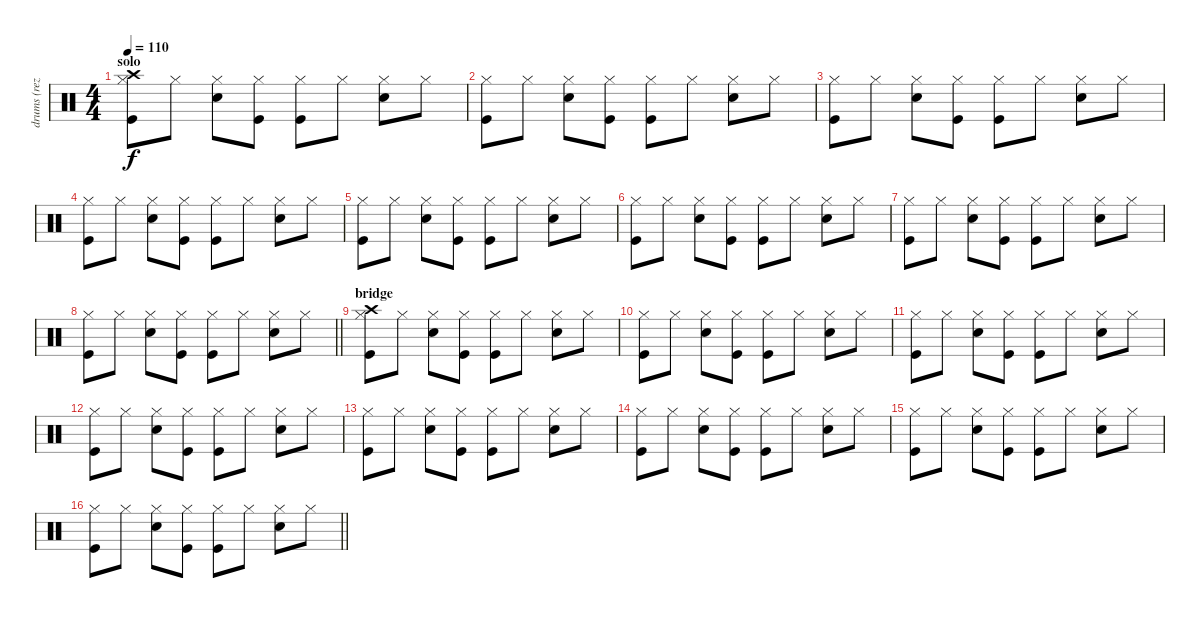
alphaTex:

\track ("drums (reza)" "drums (rez") {instrument percussion}
\staff {score}
\articulation defaults
\ts (4 4)
\section ("" "solo")
\tempo 110
\clef neutral
\ks c
("Hi-Hat (closed)" "Kick (hit)" "Crash high (hit)").8{dy f} "Hi-Hat (closed)".8 ("Hi-Hat (closed)" "Snare (hit) 2").8 ("Hi-Hat (closed)" "Kick (hit)").8 ("Hi-Hat (closed)" "Kick (hit)").8 "Hi-Hat (closed)".8 ("Hi-Hat (closed)" "Snare (hit) 2").8 "Hi-Hat (closed)".8 |
("Hi-Hat (closed)" "Kick (hit)").8 "Hi-Hat (closed)".8 ("Hi-Hat (closed)" "Snare (hit) 2").8 ("Hi-Hat (closed)" "Kick (hit)").8 ("Hi-Hat (closed)" "Kick (hit)").8 "Hi-Hat (closed)".8 ("Hi-Hat (closed)" "Snare (hit) 2").8 "Hi-Hat (closed)".8 |
("Hi-Hat (closed)" "Kick (hit)").8 "Hi-Hat (closed)".8 ("Hi-Hat (closed)" "Snare (hit) 2").8 ("Hi-Hat (closed)" "Kick (hit)").8 ("Hi-Hat (closed)" "Kick (hit)").8 "Hi-Hat (closed)".8 ("Hi-Hat (closed)" "Snare (hit) 2").8 "Hi-Hat (closed)".8 |
("Hi-Hat (closed)" "Kick (hit)").8 "Hi-Hat (closed)".8 ("Hi-Hat (closed)" "Snare (hit) 2").8 ("Hi-Hat (closed)" "Kick (hit)").8 ("Hi-Hat (closed)" "Kick (hit)").8 "Hi-Hat (closed)".8 ("Hi-Hat (closed)" "Snare (hit) 2").8 "Hi-Hat (closed)".8 |
("Hi-Hat (closed)" "Kick (hit)").8 "Hi-Hat (closed)".8 ("Hi-Hat (closed)" "Snare (hit) 2").8 ("Hi-Hat (closed)" "Kick (hit)").8 ("Hi-Hat (closed)" "Kick (hit)").8 "Hi-Hat (closed)".8 ("Hi-Hat (closed)" "Snare (hit) 2").8 "Hi-Hat (closed)".8 |
("Hi-Hat (closed)" "Kick (hit)").8 "Hi-Hat (closed)".8 ("Hi-Hat (closed)" "Snare (hit) 2").8 ("Hi-Hat (closed)" "Kick (hit)").8 ("Hi-Hat (closed)" "Kick (hit)").8 "Hi-Hat (closed)".8 ("Hi-Hat (closed)" "Snare (hit) 2").8 "Hi-Hat (closed)".8 |
("Hi-Hat (closed)" "Kick (hit)").8 "Hi-Hat (closed)".8 ("Hi-Hat (closed)" "Snare (hit) 2").8 ("Hi-Hat (closed)" "Kick (hit)").8 ("Hi-Hat (closed)" "Kick (hit)").8 "Hi-Hat (closed)".8 ("Hi-Hat (closed)" "Snare (hit) 2").8 "Hi-Hat (closed)".8 |
\barLineRight lightlight
("Hi-Hat (closed)" "Kick (hit)").8 "Hi-Hat (closed)".8 ("Hi-Hat (closed)" "Snare (hit) 2").8 ("Hi-Hat (closed)" "Kick (hit)").8 ("Hi-Hat (closed)" "Kick (hit)").8 "Hi-Hat (closed)".8 ("Hi-Hat (closed)" "Snare (hit) 2").8 "Hi-Hat (closed)".8 |
\section ("" "bridge")
("Hi-Hat (closed)" "Kick (hit)" "Crash high (hit)").8 "Hi-Hat (closed)".8 ("Hi-Hat (closed)" "Snare (hit) 2").8 ("Hi-Hat (closed)" "Kick (hit)").8 ("Hi-Hat (closed)" "Kick (hit)").8 "Hi-Hat (closed)".8 ("Hi-Hat (closed)" "Snare (hit) 2").8 "Hi-Hat (closed)".8 |
("Hi-Hat (closed)" "Kick (hit)").8 "Hi-Hat (closed)".8 ("Hi-Hat (closed)" "Snare (hit) 2").8 ("Hi-Hat (closed)" "Kick (hit)").8 ("Hi-Hat (closed)" "Kick (hit)").8 "Hi-Hat (closed)".8 ("Hi-Hat (closed)" "Snare (hit) 2").8 "Hi-Hat (closed)".8 |
("Hi-Hat (closed)" "Kick (hit)").8 "Hi-Hat (closed)".8 ("Hi-Hat (closed)" "Snare (hit) 2").8 ("Hi-Hat (closed)" "Kick (hit)").8 ("Hi-Hat (closed)" "Kick (hit)").8 "Hi-Hat (closed)".8 ("Hi-Hat (closed)" "Snare (hit) 2").8 "Hi-Hat (closed)".8 |
("Hi-Hat (closed)" "Kick (hit)").8 "Hi-Hat (closed)".8 ("Hi-Hat (closed)" "Snare (hit) 2").8 ("Hi-Hat (closed)" "Kick (hit)").8 ("Hi-Hat (closed)" "Kick (hit)").8 "Hi-Hat (closed)".8 ("Hi-Hat (closed)" "Snare (hit) 2").8 "Hi-Hat (closed)".8 |
("Hi-Hat (closed)" "Kick (hit)").8 "Hi-Hat (closed)".8 ("Hi-Hat (closed)" "Snare (hit) 2").8 ("Hi-Hat (closed)" "Kick (hit)").8 ("Hi-Hat (closed)" "Kick (hit)").8 "Hi-Hat (closed)".8 ("Hi-Hat (closed)" "Snare (hit) 2").8 "Hi-Hat (closed)".8 |
("Hi-Hat (closed)" "Kick (hit)").8 "Hi-Hat (closed)".8 ("Hi-Hat (closed)" "Snare (hit) 2").8 ("Hi-Hat (closed)" "Kick (hit)").8 ("Hi-Hat (closed)" "Kick (hit)").8 "Hi-Hat (closed)".8 ("Hi-Hat (closed)" "Snare (hit) 2").8 "Hi-Hat (closed)".8 |
("Hi-Hat (closed)" "Kick (hit)").8 "Hi-Hat (closed)".8 ("Hi-Hat (closed)" "Snare (hit) 2").8 ("Hi-Hat (closed)" "Kick (hit)").8 ("Hi-Hat (closed)" "Kick (hit)").8 "Hi-Hat (closed)".8 ("Hi-Hat (closed)" "Snare (hit) 2").8 "Hi-Hat (closed)".8 |
\barLineRight lightlight
("Hi-Hat (closed)" "Kick (hit)").8 "Hi-Hat (closed)".8 ("Hi-Hat (closed)" "Snare (hit) 2").8 ("Hi-Hat (closed)" "Kick (hit)").8 ("Hi-Hat (closed)" "Kick (hit)").8 "Hi-Hat (closed)".8 ("Hi-Hat (closed)" "Snare (hit) 2").8 "Hi-Hat (closed)".8
